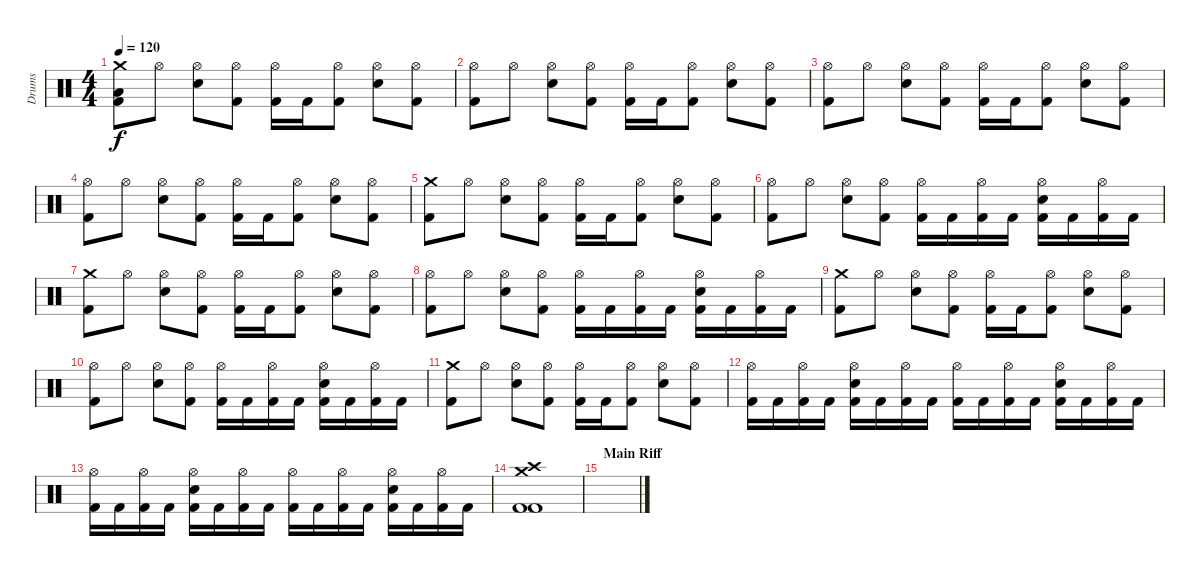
\track ("Drums" "Drums") {instrument percussion}
\staff {score}
\articulation defaults
\ts (4 4)
\tempo 120
\clef neutral
\ks c
("Crash medium (hit)" "Low Tom (hit)" "Kick (hit) 2").8{dy f} "Hi-Hat (open)".8 ("Hi-Hat (open)" "Snare (hit) 2").8 ("Hi-Hat (open)" "Kick (hit) 2").8 ("Hi-Hat (open)" "Kick (hit) 2").16 "Kick (hit) 2".16 ("Hi-Hat (open)" "Kick (hit) 2").8 ("Hi-Hat (open)" "Snare (hit) 2").8 ("Hi-Hat (open)" "Kick (hit) 2").8 |
("Hi-Hat (open)" "Kick (hit) 2").8 "Hi-Hat (open)".8 ("Hi-Hat (open)" "Snare (hit) 2").8 ("Hi-Hat (open)" "Kick (hit) 2").8 ("Hi-Hat (open)" "Kick (hit) 2").16 "Kick (hit) 2".16 ("Hi-Hat (open)" "Kick (hit) 2").8 ("Hi-Hat (open)" "Snare (hit) 2").8 ("Hi-Hat (open)" "Kick (hit) 2").8 |
("Hi-Hat (open)" "Kick (hit) 2").8 "Hi-Hat (open)".8 ("Hi-Hat (open)" "Snare (hit) 2").8 ("Hi-Hat (open)" "Kick (hit) 2").8 ("Hi-Hat (open)" "Kick (hit) 2").16 "Kick (hit) 2".16 ("Hi-Hat (open)" "Kick (hit) 2").8 ("Hi-Hat (open)" "Snare (hit) 2").8 ("Hi-Hat (open)" "Kick (hit) 2").8 |
("Hi-Hat (open)" "Kick (hit) 2").8 "Hi-Hat (open)".8 ("Hi-Hat (open)" "Snare (hit) 2").8 ("Hi-Hat (open)" "Kick (hit) 2").8 ("Hi-Hat (open)" "Kick (hit) 2").16 "Kick (hit) 2".16 ("Hi-Hat (open)" "Kick (hit) 2").8 ("Hi-Hat (open)" "Snare (hit) 2").8 ("Hi-Hat (open)" "Kick (hit) 2").8 |
("Crash medium (hit)" "Kick (hit) 2").8 "Hi-Hat (open)".8 ("Hi-Hat (open)" "Snare (hit) 2").8 ("Hi-Hat (open)" "Kick (hit) 2").8 ("Hi-Hat (open)" "Kick (hit) 2").16 "Kick (hit) 2".16 ("Hi-Hat (open)" "Kick (hit) 2").8 ("Hi-Hat (open)" "Snare (hit) 2").8 ("Hi-Hat (open)" "Kick (hit) 2").8 |
("Hi-Hat (open)" "Kick (hit) 2").8 "Hi-Hat (open)".8 ("Hi-Hat (open)" "Snare (hit) 2").8 ("Hi-Hat (open)" "Kick (hit) 2").8 ("Hi-Hat (open)" "Kick (hit) 2").16 "Kick (hit) 2".16 ("Hi-Hat (open)" "Kick (hit) 2").16 "Kick (hit) 2".16 ("Hi-Hat (open)" "Snare (hit) 2" "Kick (hit) 2").16 "Kick (hit) 2".16 ("Hi-Hat (open)" "Kick (hit) 2").16 "Kick (hit) 2".16 |
("Crash medium (hit)" "Kick (hit) 2").8 "Hi-Hat (open)".8 ("Hi-Hat (open)" "Snare (hit) 2").8 ("Hi-Hat (open)" "Kick (hit) 2").8 ("Hi-Hat (open)" "Kick (hit) 2").16 "Kick (hit) 2".16 ("Hi-Hat (open)" "Kick (hit) 2").8 ("Hi-Hat (open)" "Snare (hit) 2").8 ("Hi-Hat (open)" "Kick (hit) 2").8 |
("Hi-Hat (open)" "Kick (hit) 2").8 "Hi-Hat (open)".8 ("Hi-Hat (open)" "Snare (hit) 2").8 ("Hi-Hat (open)" "Kick (hit) 2").8 ("Hi-Hat (open)" "Kick (hit) 2").16 "Kick (hit) 2".16 ("Hi-Hat (open)" "Kick (hit) 2").16 "Kick (hit) 2".16 ("Hi-Hat (open)" "Snare (hit) 2" "Kick (hit) 2").16 "Kick (hit) 2".16 ("Hi-Hat (open)" "Kick (hit) 2").16 "Kick (hit) 2".16 |
("Crash medium (hit)" "Kick (hit) 2").8 "Hi-Hat (open)".8 ("Hi-Hat (open)" "Snare (hit) 2").8 ("Hi-Hat (open)" "Kick (hit) 2").8 ("Hi-Hat (open)" "Kick (hit) 2").16 "Kick (hit) 2".16 ("Hi-Hat (open)" "Kick (hit) 2").8 ("Hi-Hat (open)" "Snare (hit) 2").8 ("Hi-Hat (open)" "Kick (hit) 2").8 |
("Hi-Hat (open)" "Kick (hit) 2").8 "Hi-Hat (open)".8 ("Hi-Hat (open)" "Snare (hit) 2").8 ("Hi-Hat (open)" "Kick (hit) 2").8 ("Hi-Hat (open)" "Kick (hit) 2").16 "Kick (hit) 2".16 ("Hi-Hat (open)" "Kick (hit) 2").16 "Kick (hit) 2".16 ("Hi-Hat (open)" "Snare (hit) 2" "Kick (hit) 2").16 "Kick (hit) 2".16 ("Hi-Hat (open)" "Kick (hit) 2").16 "Kick (hit) 2".16 |
("Crash medium (hit)" "Kick (hit) 2").8 "Hi-Hat (open)".8 ("Hi-Hat (open)" "Snare (hit) 2").8 ("Hi-Hat (open)" "Kick (hit) 2").8 ("Hi-Hat (open)" "Kick (hit) 2").16 "Kick (hit) 2".16 ("Hi-Hat (open)" "Kick (hit) 2").8 ("Hi-Hat (open)" "Snare (hit) 2").8 ("Hi-Hat (open)" "Kick (hit) 2").8 |
("Hi-Hat (open)" "Kick (hit) 2").16 "Kick (hit) 2".16 ("Hi-Hat (open)" "Kick (hit) 2").16 "Kick (hit) 2".16 ("Hi-Hat (open)" "Snare (hit) 2" "Kick (hit) 2").16 "Kick (hit) 2".16 ("Hi-Hat (open)" "Kick (hit) 2").16 "Kick (hit) 2".16 ("Hi-Hat (open)" "Kick (hit) 2").16 "Kick (hit) 2".16 ("Hi-Hat (open)" "Kick (hit) 2").16 "Kick (hit) 2".16 ("Hi-Hat (open)" "Snare (hit) 2" "Kick (hit) 2").16 "Kick (hit) 2".16 ("Hi-Hat (open)" "Kick (hit) 2").16 "Kick (hit) 2".16 |
("Hi-Hat (open)" "Kick (hit) 2").16 "Kick (hit) 2".16 ("Hi-Hat (open)" "Kick (hit) 2").16 "Kick (hit) 2".16 ("Hi-Hat (open)" "Snare (hit) 2" "Kick (hit) 2").16 "Kick (hit) 2".16 ("Hi-Hat (open)" "Kick (hit) 2").16 "Kick (hit) 2".16 ("Hi-Hat (open)" "Kick (hit) 2").16 "Kick (hit) 2".16 ("Hi-Hat (open)" "Kick (hit) 2").16 "Kick (hit) 2".16 ("Hi-Hat (open)" "Snare (hit) 2" "Kick (hit) 2").16 "Kick (hit) 2".16 ("Hi-Hat (open)" "Kick (hit) 2").16 "Kick (hit) 2".16 |
("Crash medium (hit)" "Crash high (hit)" "Kick (hit) 2" "Kick (hit) 2").1 |
\section ("" "Main Riff")
